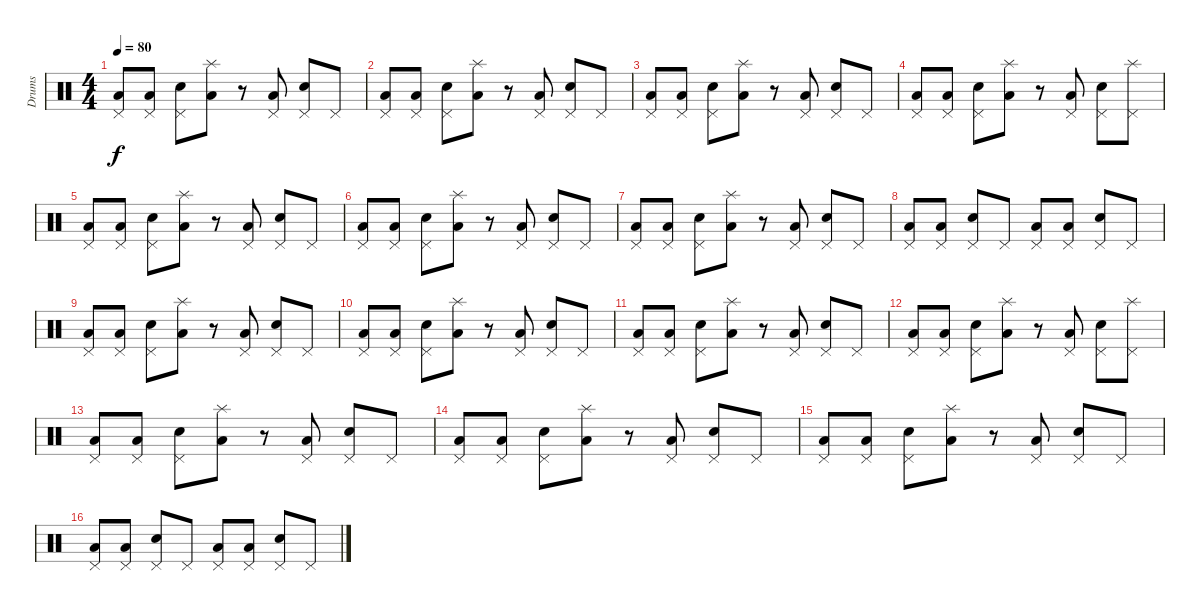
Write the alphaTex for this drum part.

\track ("Drums" "Drums") {instrument percussion}
\staff {score}
\articulation defaults
\ts (4 4)
\tempo 80
\clef neutral
\ks c
("Low Floor Tom (hit)" "Pedal Hi-Hat (hit)").8{dy f} ("Low Floor Tom (hit)" "Pedal Hi-Hat (hit)").8 ("Electric Snare (hit)" "Pedal Hi-Hat (hit)").8 ("Low Floor Tom (hit)" "Splash (hit)").8 r.8 ("Low Floor Tom (hit)" "Pedal Hi-Hat (hit)").8 ("Electric Snare (hit)" "Pedal Hi-Hat (hit)").8 "Pedal Hi-Hat (hit)".8 |
("Low Floor Tom (hit)" "Pedal Hi-Hat (hit)").8 ("Low Floor Tom (hit)" "Pedal Hi-Hat (hit)").8 ("Electric Snare (hit)" "Pedal Hi-Hat (hit)").8 ("Low Floor Tom (hit)" "Splash (hit)").8 r.8 ("Low Floor Tom (hit)" "Pedal Hi-Hat (hit)").8 ("Electric Snare (hit)" "Pedal Hi-Hat (hit)").8 "Pedal Hi-Hat (hit)".8 |
("Low Floor Tom (hit)" "Pedal Hi-Hat (hit)").8 ("Low Floor Tom (hit)" "Pedal Hi-Hat (hit)").8 ("Electric Snare (hit)" "Pedal Hi-Hat (hit)").8 ("Low Floor Tom (hit)" "Splash (hit)").8 r.8 ("Low Floor Tom (hit)" "Pedal Hi-Hat (hit)").8 ("Electric Snare (hit)" "Pedal Hi-Hat (hit)").8 "Pedal Hi-Hat (hit)".8 |
("Low Floor Tom (hit)" "Pedal Hi-Hat (hit)").8 ("Low Floor Tom (hit)" "Pedal Hi-Hat (hit)").8 ("Electric Snare (hit)" "Pedal Hi-Hat (hit)").8 ("Low Floor Tom (hit)" "Splash (hit)").8 r.8 ("Low Floor Tom (hit)" "Pedal Hi-Hat (hit)").8 ("Electric Snare (hit)" "Pedal Hi-Hat (hit)").8 ("Pedal Hi-Hat (hit)" "Splash (hit)").8 |
("Low Floor Tom (hit)" "Pedal Hi-Hat (hit)").8 ("Low Floor Tom (hit)" "Pedal Hi-Hat (hit)").8 ("Electric Snare (hit)" "Pedal Hi-Hat (hit)").8 ("Low Floor Tom (hit)" "Splash (hit)").8 r.8 ("Low Floor Tom (hit)" "Pedal Hi-Hat (hit)").8 ("Electric Snare (hit)" "Pedal Hi-Hat (hit)").8 "Pedal Hi-Hat (hit)".8 |
("Low Floor Tom (hit)" "Pedal Hi-Hat (hit)").8 ("Low Floor Tom (hit)" "Pedal Hi-Hat (hit)").8 ("Electric Snare (hit)" "Pedal Hi-Hat (hit)").8 ("Low Floor Tom (hit)" "Splash (hit)").8 r.8 ("Low Floor Tom (hit)" "Pedal Hi-Hat (hit)").8 ("Electric Snare (hit)" "Pedal Hi-Hat (hit)").8 "Pedal Hi-Hat (hit)".8 |
("Low Floor Tom (hit)" "Pedal Hi-Hat (hit)").8 ("Low Floor Tom (hit)" "Pedal Hi-Hat (hit)").8 ("Electric Snare (hit)" "Pedal Hi-Hat (hit)").8 ("Low Floor Tom (hit)" "Splash (hit)").8 r.8 ("Low Floor Tom (hit)" "Pedal Hi-Hat (hit)").8 ("Electric Snare (hit)" "Pedal Hi-Hat (hit)").8 "Pedal Hi-Hat (hit)".8 |
("Low Floor Tom (hit)" "Pedal Hi-Hat (hit)").8 ("Low Floor Tom (hit)" "Pedal Hi-Hat (hit)").8 ("Electric Snare (hit)" "Pedal Hi-Hat (hit)").8 "Pedal Hi-Hat (hit)".8 ("Low Floor Tom (hit)" "Pedal Hi-Hat (hit)").8 ("Low Floor Tom (hit)" "Pedal Hi-Hat (hit)").8 ("Electric Snare (hit)" "Pedal Hi-Hat (hit)").8 "Pedal Hi-Hat (hit)".8 |
("Low Floor Tom (hit)" "Pedal Hi-Hat (hit)").8 ("Low Floor Tom (hit)" "Pedal Hi-Hat (hit)").8 ("Electric Snare (hit)" "Pedal Hi-Hat (hit)").8 ("Low Floor Tom (hit)" "Splash (hit)").8 r.8 ("Low Floor Tom (hit)" "Pedal Hi-Hat (hit)").8 ("Electric Snare (hit)" "Pedal Hi-Hat (hit)").8 "Pedal Hi-Hat (hit)".8 |
("Low Floor Tom (hit)" "Pedal Hi-Hat (hit)").8 ("Low Floor Tom (hit)" "Pedal Hi-Hat (hit)").8 ("Electric Snare (hit)" "Pedal Hi-Hat (hit)").8 ("Low Floor Tom (hit)" "Splash (hit)").8 r.8 ("Low Floor Tom (hit)" "Pedal Hi-Hat (hit)").8 ("Electric Snare (hit)" "Pedal Hi-Hat (hit)").8 "Pedal Hi-Hat (hit)".8 |
("Low Floor Tom (hit)" "Pedal Hi-Hat (hit)").8 ("Low Floor Tom (hit)" "Pedal Hi-Hat (hit)").8 ("Electric Snare (hit)" "Pedal Hi-Hat (hit)").8 ("Low Floor Tom (hit)" "Splash (hit)").8 r.8 ("Low Floor Tom (hit)" "Pedal Hi-Hat (hit)").8 ("Electric Snare (hit)" "Pedal Hi-Hat (hit)").8 "Pedal Hi-Hat (hit)".8 |
("Low Floor Tom (hit)" "Pedal Hi-Hat (hit)").8 ("Low Floor Tom (hit)" "Pedal Hi-Hat (hit)").8 ("Electric Snare (hit)" "Pedal Hi-Hat (hit)").8 ("Low Floor Tom (hit)" "Splash (hit)").8 r.8 ("Low Floor Tom (hit)" "Pedal Hi-Hat (hit)").8 ("Electric Snare (hit)" "Pedal Hi-Hat (hit)").8 ("Pedal Hi-Hat (hit)" "Splash (hit)").8 |
("Low Floor Tom (hit)" "Pedal Hi-Hat (hit)").8 ("Low Floor Tom (hit)" "Pedal Hi-Hat (hit)").8 ("Electric Snare (hit)" "Pedal Hi-Hat (hit)").8 ("Low Floor Tom (hit)" "Splash (hit)").8 r.8 ("Low Floor Tom (hit)" "Pedal Hi-Hat (hit)").8 ("Electric Snare (hit)" "Pedal Hi-Hat (hit)").8 "Pedal Hi-Hat (hit)".8 |
("Low Floor Tom (hit)" "Pedal Hi-Hat (hit)").8 ("Low Floor Tom (hit)" "Pedal Hi-Hat (hit)").8 ("Electric Snare (hit)" "Pedal Hi-Hat (hit)").8 ("Low Floor Tom (hit)" "Splash (hit)").8 r.8 ("Low Floor Tom (hit)" "Pedal Hi-Hat (hit)").8 ("Electric Snare (hit)" "Pedal Hi-Hat (hit)").8 "Pedal Hi-Hat (hit)".8 |
("Low Floor Tom (hit)" "Pedal Hi-Hat (hit)").8 ("Low Floor Tom (hit)" "Pedal Hi-Hat (hit)").8 ("Electric Snare (hit)" "Pedal Hi-Hat (hit)").8 ("Low Floor Tom (hit)" "Splash (hit)").8 r.8 ("Low Floor Tom (hit)" "Pedal Hi-Hat (hit)").8 ("Electric Snare (hit)" "Pedal Hi-Hat (hit)").8 "Pedal Hi-Hat (hit)".8 |
("Low Floor Tom (hit)" "Pedal Hi-Hat (hit)").8 ("Low Floor Tom (hit)" "Pedal Hi-Hat (hit)").8 ("Electric Snare (hit)" "Pedal Hi-Hat (hit)").8 "Pedal Hi-Hat (hit)".8 ("Low Floor Tom (hit)" "Pedal Hi-Hat (hit)").8 ("Low Floor Tom (hit)" "Pedal Hi-Hat (hit)").8 ("Electric Snare (hit)" "Pedal Hi-Hat (hit)").8 "Pedal Hi-Hat (hit)".8
